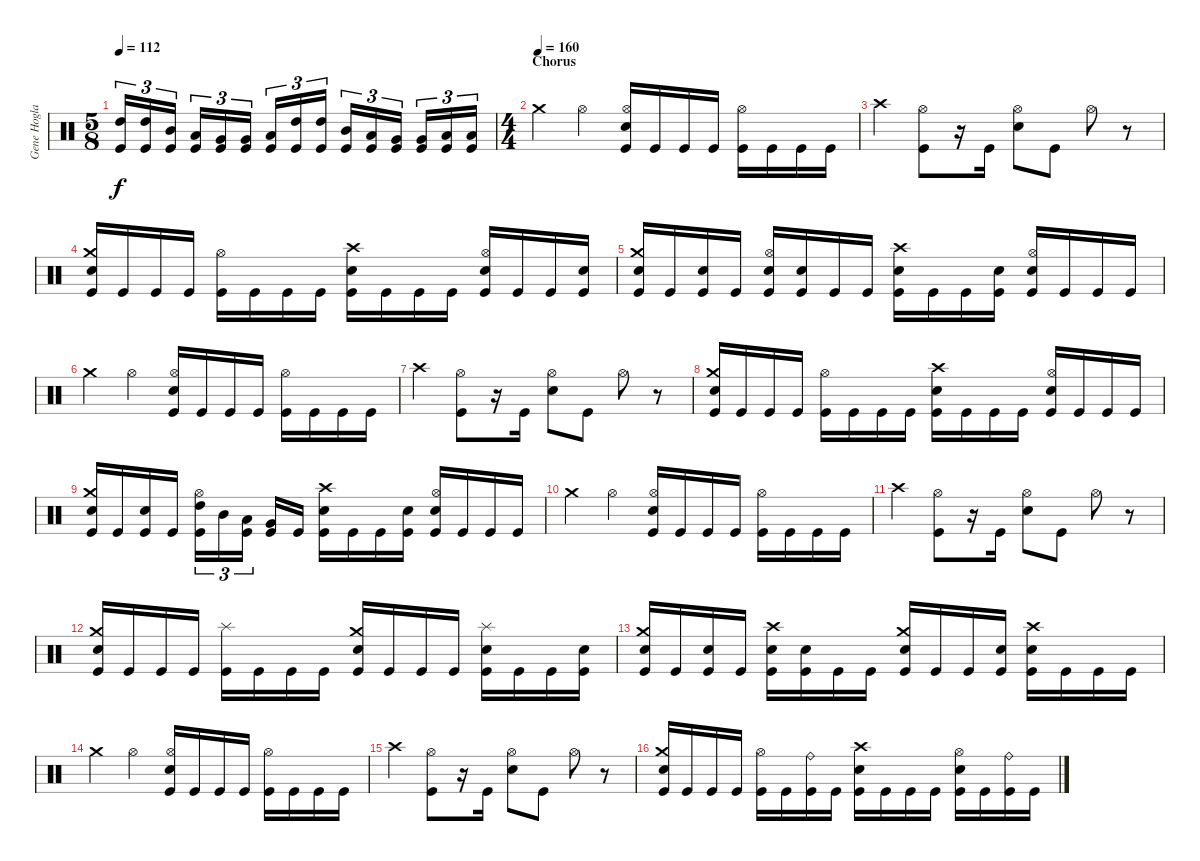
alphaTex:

\track ("Gene Hoglan" "Gene Hogla") {instrument percussion}
\staff {score}
\articulation defaults
\ts (5 8)
\tempo 112
\clef neutral
\ks c
("High Tom (hit)" "Kick (hit)").16{tu (3 2) dy f} ("High Tom (hit)" "Kick (hit)").16{tu (3 2)} ("Mid Tom (hit)" "Kick (hit)").16{tu (3 2)} ("Low Tom (hit)" "Kick (hit)").16{tu (3 2)} ("Very Low Tom (hit)" "Kick (hit)").16{tu (3 2)} ("Very Low Tom (hit)" "Kick (hit)").16{tu (3 2)} ("Low Floor Tom (hit)" "Kick (hit)").16{tu (3 2)} ("High Tom (hit)" "Kick (hit)").16{tu (3 2)} ("High Tom (hit)" "Kick (hit)").16{tu (3 2)} ("Mid Tom (hit)" "Kick (hit)").16{tu (3 2)} ("Low Tom (hit)" "Kick (hit)").16{tu (3 2)} ("Very Low Tom (hit)" "Kick (hit)").16{tu (3 2)} ("Very Low Tom (hit)" "Kick (hit)").16{tu (3 2)} ("Low Floor Tom (hit)" "Kick (hit)").16{tu (3 2)} ("Low Floor Tom (hit)" "Kick (hit)").16{tu (3 2)} |
\ts (4 4)
\section ("" "Chorus")
\tempo (160)
"Crash medium (hit)".4 "Hi-Hat (open)".4 ("Hi-Hat (open)" "Electric Snare (hit)" "Kick (hit)").16 "Kick (hit)".16 "Kick (hit)".16 "Kick (hit)".16 ("Hi-Hat (open)" "Kick (hit)").16 "Kick (hit)".16 "Kick (hit)".16 "Kick (hit)".16 |
"Crash high (hit)".4 ("Hi-Hat (open)" "Kick (hit)").8 r.16 "Kick (hit)".16 ("Hi-Hat (open)" "Electric Snare (hit)").8 "Kick (hit)".8 "Hi-Hat (open)".8 r.8 |
("Crash medium (hit)" "Electric Snare (hit)" "Kick (hit)").16 "Kick (hit)".16 "Kick (hit)".16 "Kick (hit)".16 ("Hi-Hat (open)" "Kick (hit)").16 "Kick (hit)".16 "Kick (hit)".16 "Kick (hit)".16 ("Crash high (hit)" "Electric Snare (hit)" "Kick (hit)").16 "Kick (hit)".16 "Kick (hit)".16 "Kick (hit)".16 ("Hi-Hat (open)" "Electric Snare (hit)" "Kick (hit)").16 "Kick (hit)".16 "Kick (hit)".16 ("Electric Snare (hit)" "Kick (hit)").16 |
("Crash medium (hit)" "Electric Snare (hit)" "Kick (hit)").16 "Kick (hit)".16 ("Electric Snare (hit)" "Kick (hit)").16 "Kick (hit)".16 ("Hi-Hat (open)" "Electric Snare (hit)" "Kick (hit)").16 ("Electric Snare (hit)" "Kick (hit)").16 "Kick (hit)".16 "Kick (hit)".16 ("Crash high (hit)" "Electric Snare (hit)" "Kick (hit)").16 "Kick (hit)".16 "Kick (hit)".16 ("Electric Snare (hit)" "Kick (hit)").16 ("Hi-Hat (open)" "Electric Snare (hit)" "Kick (hit)").16 "Kick (hit)".16 "Kick (hit)".16 "Kick (hit)".16 |
"Crash medium (hit)".4 "Hi-Hat (open)".4 ("Hi-Hat (open)" "Electric Snare (hit)" "Kick (hit)").16 "Kick (hit)".16 "Kick (hit)".16 "Kick (hit)".16 ("Hi-Hat (open)" "Kick (hit)").16 "Kick (hit)".16 "Kick (hit)".16 "Kick (hit)".16 |
"Crash high (hit)".4 ("Hi-Hat (open)" "Kick (hit)").8 r.16 "Kick (hit)".16 ("Hi-Hat (open)" "Electric Snare (hit)").8 "Kick (hit)".8 "Hi-Hat (open)".8 r.8 |
("Crash medium (hit)" "Electric Snare (hit)" "Kick (hit)").16 "Kick (hit)".16 "Kick (hit)".16 "Kick (hit)".16 ("Hi-Hat (open)" "Kick (hit)").16 "Kick (hit)".16 "Kick (hit)".16 "Kick (hit)".16 ("Crash high (hit)" "Electric Snare (hit)" "Kick (hit)").16 "Kick (hit)".16 "Kick (hit)".16 "Kick (hit)".16 ("Hi-Hat (open)" "Electric Snare (hit)" "Kick (hit)").16 "Kick (hit)".16 "Kick (hit)".16 "Kick (hit)".16 |
("Crash medium (hit)" "Electric Snare (hit)" "Kick (hit)").16 "Kick (hit)".16 ("Electric Snare (hit)" "Kick (hit)").16 "Kick (hit)".16 ("Hi-Hat (open)" "High Tom (hit)" "Kick (hit)").16{tu (3 2)} "Mid Tom (hit)".16{tu (3 2)} ("Low Tom (hit)" "Kick (hit)").16{tu (3 2)} ("Very Low Tom (hit)" "Kick (hit)").16 "Kick (hit)".16 ("Crash high (hit)" "Electric Snare (hit)" "Kick (hit)").16 "Kick (hit)".16 "Kick (hit)".16 ("Electric Snare (hit)" "Kick (hit)").16 ("Hi-Hat (open)" "Electric Snare (hit)" "Kick (hit)").16 "Kick (hit)".16 "Kick (hit)".16 "Kick (hit)".16 |
"Crash medium (hit)".4 "Hi-Hat (open)".4 ("Hi-Hat (open)" "Electric Snare (hit)" "Kick (hit)").16 "Kick (hit)".16 "Kick (hit)".16 "Kick (hit)".16 ("Hi-Hat (open)" "Kick (hit)").16 "Kick (hit)".16 "Kick (hit)".16 "Kick (hit)".16 |
"Crash high (hit)".4 ("Hi-Hat (open)" "Kick (hit)").8 r.16 "Kick (hit)".16 ("Hi-Hat (open)" "Electric Snare (hit)").8 "Kick (hit)".8 "Hi-Hat (open)".8 r.8 |
("Crash medium (hit)" "Electric Snare (hit)" "Kick (hit)").16 "Kick (hit)".16 "Kick (hit)".16 "Kick (hit)".16 ("Splash (hit)" "Kick (hit)").16 "Kick (hit)".16 "Kick (hit)".16 "Kick (hit)".16 ("Crash medium (hit)" "Electric Snare (hit)" "Kick (hit)").16 "Kick (hit)".16 "Kick (hit)".16 "Kick (hit)".16 ("Splash (hit)" "Electric Snare (hit)" "Kick (hit)").16 "Kick (hit)".16 "Kick (hit)".16 ("Electric Snare (hit)" "Kick (hit)").16 |
("Crash medium (hit)" "Electric Snare (hit)" "Kick (hit)").16 "Kick (hit)".16 ("Electric Snare (hit)" "Kick (hit)").16 "Kick (hit)".16 ("Crash high (hit)" "Electric Snare (hit)" "Kick (hit)").16 ("Electric Snare (hit)" "Kick (hit)").16 "Kick (hit)".16 "Kick (hit)".16 ("Crash medium (hit)" "Electric Snare (hit)" "Kick (hit)").16 "Kick (hit)".16 "Kick (hit)".16 ("Electric Snare (hit)" "Kick (hit)").16 ("Crash high (hit)" "Electric Snare (hit)" "Kick (hit)").16 "Kick (hit)".16 "Kick (hit)".16 "Kick (hit)".16 |
"Crash medium (hit)".4 "Hi-Hat (open)".4 ("Hi-Hat (open)" "Electric Snare (hit)" "Kick (hit)").16 "Kick (hit)".16 "Kick (hit)".16 "Kick (hit)".16 ("Hi-Hat (open)" "Kick (hit)").16 "Kick (hit)".16 "Kick (hit)".16 "Kick (hit)".16 |
"Crash high (hit)".4 ("Hi-Hat (open)" "Kick (hit)").8 r.16 "Kick (hit)".16 ("Hi-Hat (open)" "Electric Snare (hit)").8 "Kick (hit)".8 "Hi-Hat (open)".8 r.8 |
("Crash medium (hit)" "Electric Snare (hit)" "Kick (hit)").16 "Kick (hit)".16 "Kick (hit)".16 "Kick (hit)".16 ("Hi-Hat (open)" "Kick (hit)").16 "Kick (hit)".16 ("Ride (bell)" "Kick (hit)").16 "Kick (hit)".16 ("Crash high (hit)" "Electric Snare (hit)" "Kick (hit)").16 "Kick (hit)".16 "Kick (hit)".16 "Kick (hit)".16 ("Hi-Hat (open)" "Electric Snare (hit)" "Kick (hit)").16 "Kick (hit)".16 ("Ride (bell)" "Kick (hit)").16 "Kick (hit)".16
